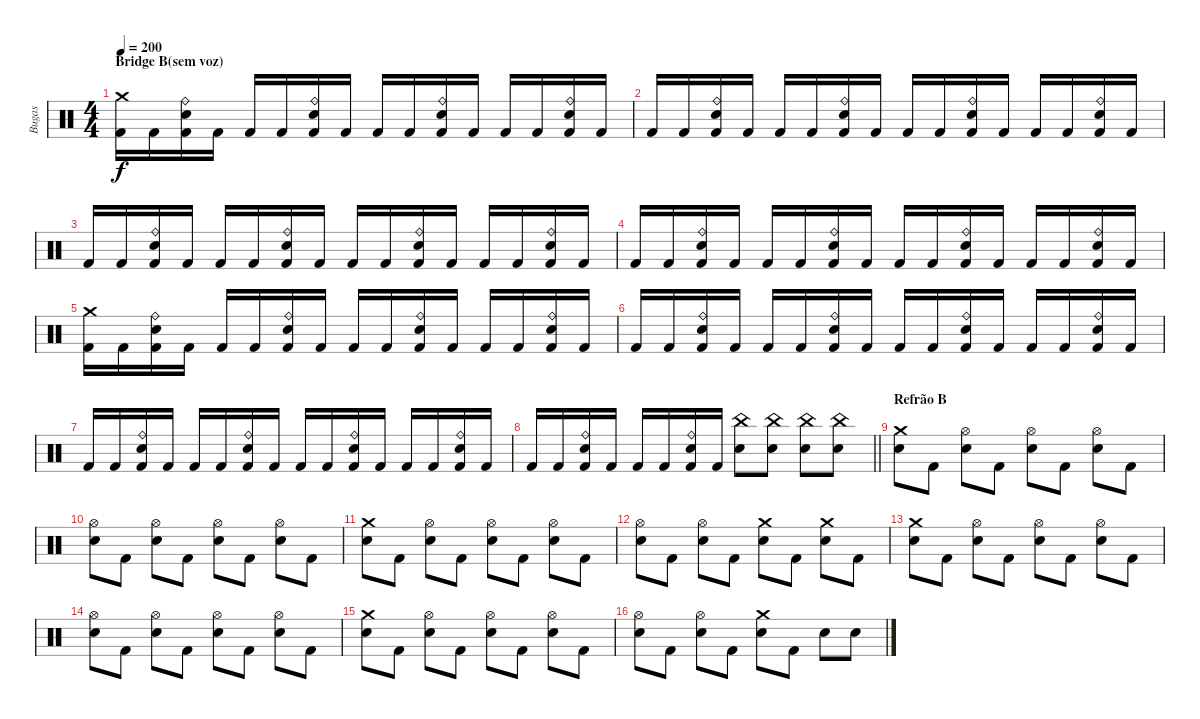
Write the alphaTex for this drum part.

\track ("Bugas" "Bugas") {instrument percussion}
\staff {score}
\articulation defaults
\ts (4 4)
\section ("" "Bridge B(sem voz)")
\tempo 200
\clef neutral
\ks c
("Crash medium (hit)" "Kick (hit) 2").16{dy f} "Kick (hit) 2".16 ("Ride (bell)" "Electric Snare (hit)" "Kick (hit) 2").16 "Kick (hit) 2".16 "Kick (hit) 2".16 "Kick (hit) 2".16 ("Ride (bell)" "Electric Snare (hit)" "Kick (hit) 2").16 "Kick (hit) 2".16 "Kick (hit) 2".16 "Kick (hit) 2".16 ("Ride (bell)" "Electric Snare (hit)" "Kick (hit) 2").16 "Kick (hit) 2".16 "Kick (hit) 2".16 "Kick (hit) 2".16 ("Ride (bell)" "Electric Snare (hit)" "Kick (hit) 2").16 "Kick (hit) 2".16 |
"Kick (hit) 2".16 "Kick (hit) 2".16 ("Ride (bell)" "Electric Snare (hit)" "Kick (hit) 2").16 "Kick (hit) 2".16 "Kick (hit) 2".16 "Kick (hit) 2".16 ("Ride (bell)" "Electric Snare (hit)" "Kick (hit) 2").16 "Kick (hit) 2".16 "Kick (hit) 2".16 "Kick (hit) 2".16 ("Ride (bell)" "Electric Snare (hit)" "Kick (hit) 2").16 "Kick (hit) 2".16 "Kick (hit) 2".16 "Kick (hit) 2".16 ("Ride (bell)" "Electric Snare (hit)" "Kick (hit) 2").16 "Kick (hit) 2".16 |
"Kick (hit) 2".16 "Kick (hit) 2".16 ("Ride (bell)" "Electric Snare (hit)" "Kick (hit) 2").16 "Kick (hit) 2".16 "Kick (hit) 2".16 "Kick (hit) 2".16 ("Ride (bell)" "Electric Snare (hit)" "Kick (hit) 2").16 "Kick (hit) 2".16 "Kick (hit) 2".16 "Kick (hit) 2".16 ("Ride (bell)" "Electric Snare (hit)" "Kick (hit) 2").16 "Kick (hit) 2".16 "Kick (hit) 2".16 "Kick (hit) 2".16 ("Ride (bell)" "Electric Snare (hit)" "Kick (hit) 2").16 "Kick (hit) 2".16 |
"Kick (hit) 2".16 "Kick (hit) 2".16 ("Ride (bell)" "Electric Snare (hit)" "Kick (hit) 2").16 "Kick (hit) 2".16 "Kick (hit) 2".16 "Kick (hit) 2".16 ("Ride (bell)" "Electric Snare (hit)" "Kick (hit) 2").16 "Kick (hit) 2".16 "Kick (hit) 2".16 "Kick (hit) 2".16 ("Ride (bell)" "Electric Snare (hit)" "Kick (hit) 2").16 "Kick (hit) 2".16 "Kick (hit) 2".16 "Kick (hit) 2".16 ("Ride (bell)" "Electric Snare (hit)" "Kick (hit) 2").16 "Kick (hit) 2".16 |
("Crash medium (hit)" "Kick (hit) 2").16 "Kick (hit) 2".16 ("Ride (bell)" "Electric Snare (hit)" "Kick (hit) 2").16 "Kick (hit) 2".16 "Kick (hit) 2".16 "Kick (hit) 2".16 ("Ride (bell)" "Electric Snare (hit)" "Kick (hit) 2").16 "Kick (hit) 2".16 "Kick (hit) 2".16 "Kick (hit) 2".16 ("Ride (bell)" "Electric Snare (hit)" "Kick (hit) 2").16 "Kick (hit) 2".16 "Kick (hit) 2".16 "Kick (hit) 2".16 ("Ride (bell)" "Electric Snare (hit)" "Kick (hit) 2").16 "Kick (hit) 2".16 |
"Kick (hit) 2".16 "Kick (hit) 2".16 ("Ride (bell)" "Electric Snare (hit)" "Kick (hit) 2").16 "Kick (hit) 2".16 "Kick (hit) 2".16 "Kick (hit) 2".16 ("Ride (bell)" "Electric Snare (hit)" "Kick (hit) 2").16 "Kick (hit) 2".16 "Kick (hit) 2".16 "Kick (hit) 2".16 ("Ride (bell)" "Electric Snare (hit)" "Kick (hit) 2").16 "Kick (hit) 2".16 "Kick (hit) 2".16 "Kick (hit) 2".16 ("Ride (bell)" "Electric Snare (hit)" "Kick (hit) 2").16 "Kick (hit) 2".16 |
"Kick (hit) 2".16 "Kick (hit) 2".16 ("Ride (bell)" "Electric Snare (hit)" "Kick (hit) 2").16 "Kick (hit) 2".16 "Kick (hit) 2".16 "Kick (hit) 2".16 ("Ride (bell)" "Electric Snare (hit)" "Kick (hit) 2").16 "Kick (hit) 2".16 "Kick (hit) 2".16 "Kick (hit) 2".16 ("Ride (bell)" "Electric Snare (hit)" "Kick (hit) 2").16 "Kick (hit) 2".16 "Kick (hit) 2".16 "Kick (hit) 2".16 ("Ride (bell)" "Electric Snare (hit)" "Kick (hit) 2").16 "Kick (hit) 2".16 |
\barLineRight lightlight "Kick (hit) 2".16 "Kick (hit) 2".16
("Ride (bell)" "Electric Snare (hit)" "Kick (hit) 2").16 "Kick (hit) 2".16 "Kick (hit) 2".16 "Kick (hit) 2".16 ("Ride (bell)" "Electric Snare (hit)" "Kick (hit) 2").16 "Kick (hit) 2".16 ("China (hit)" "Electric Snare (hit)").8 ("China (hit)" "Electric Snare (hit)").8 ("China (hit)" "Electric Snare (hit)").8 ("China (hit)" "Electric Snare (hit)").8 |
\section ("" "Refrão B")
("Crash medium (hit)" "Electric Snare (hit)").8 "Kick (hit) 2".8 ("Hi-Hat (open)" "Electric Snare (hit)").8 "Kick (hit) 2".8 ("Hi-Hat (open)" "Electric Snare (hit)").8 "Kick (hit) 2".8 ("Hi-Hat (open)" "Electric Snare (hit)").8 "Kick (hit) 2".8 |
("Hi-Hat (open)" "Electric Snare (hit)").8 "Kick (hit) 2".8 ("Hi-Hat (open)" "Electric Snare (hit)").8 "Kick (hit) 2".8 ("Hi-Hat (open)" "Electric Snare (hit)").8 "Kick (hit) 2".8 ("Hi-Hat (open)" "Electric Snare (hit)").8 "Kick (hit) 2".8 |
("Crash medium (hit)" "Electric Snare (hit)").8 "Kick (hit) 2".8 ("Hi-Hat (open)" "Electric Snare (hit)").8 "Kick (hit) 2".8 ("Hi-Hat (open)" "Electric Snare (hit)").8 "Kick (hit) 2".8 ("Hi-Hat (open)" "Electric Snare (hit)").8 "Kick (hit) 2".8 |
("Hi-Hat (open)" "Electric Snare (hit)").8 "Kick (hit) 2".8 ("Hi-Hat (open)" "Electric Snare (hit)").8 "Kick (hit) 2".8 ("Crash medium (hit)" "Electric Snare (hit)").8 "Kick (hit) 2".8 ("Crash medium (hit)" "Electric Snare (hit)").8 "Kick (hit) 2".8 |
("Crash medium (hit)" "Electric Snare (hit)").8 "Kick (hit) 2".8 ("Hi-Hat (open)" "Electric Snare (hit)").8 "Kick (hit) 2".8 ("Hi-Hat (open)" "Electric Snare (hit)").8 "Kick (hit) 2".8 ("Hi-Hat (open)" "Electric Snare (hit)").8 "Kick (hit) 2".8 |
("Hi-Hat (open)" "Electric Snare (hit)").8 "Kick (hit) 2".8 ("Hi-Hat (open)" "Electric Snare (hit)").8 "Kick (hit) 2".8 ("Hi-Hat (open)" "Electric Snare (hit)").8 "Kick (hit) 2".8 ("Hi-Hat (open)" "Electric Snare (hit)").8 "Kick (hit) 2".8 |
("Crash medium (hit)" "Electric Snare (hit)").8 "Kick (hit) 2".8 ("Hi-Hat (open)" "Electric Snare (hit)").8 "Kick (hit) 2".8 ("Hi-Hat (open)" "Electric Snare (hit)").8 "Kick (hit) 2".8 ("Hi-Hat (open)" "Electric Snare (hit)").8 "Kick (hit) 2".8 |
("Hi-Hat (open)" "Electric Snare (hit)").8 "Kick (hit) 2".8 ("Hi-Hat (open)" "Electric Snare (hit)").8 "Kick (hit) 2".8 ("Crash medium (hit)" "Electric Snare (hit)").8 "Kick (hit) 2".8 "Electric Snare (hit)".8 "Electric Snare (hit)".8
